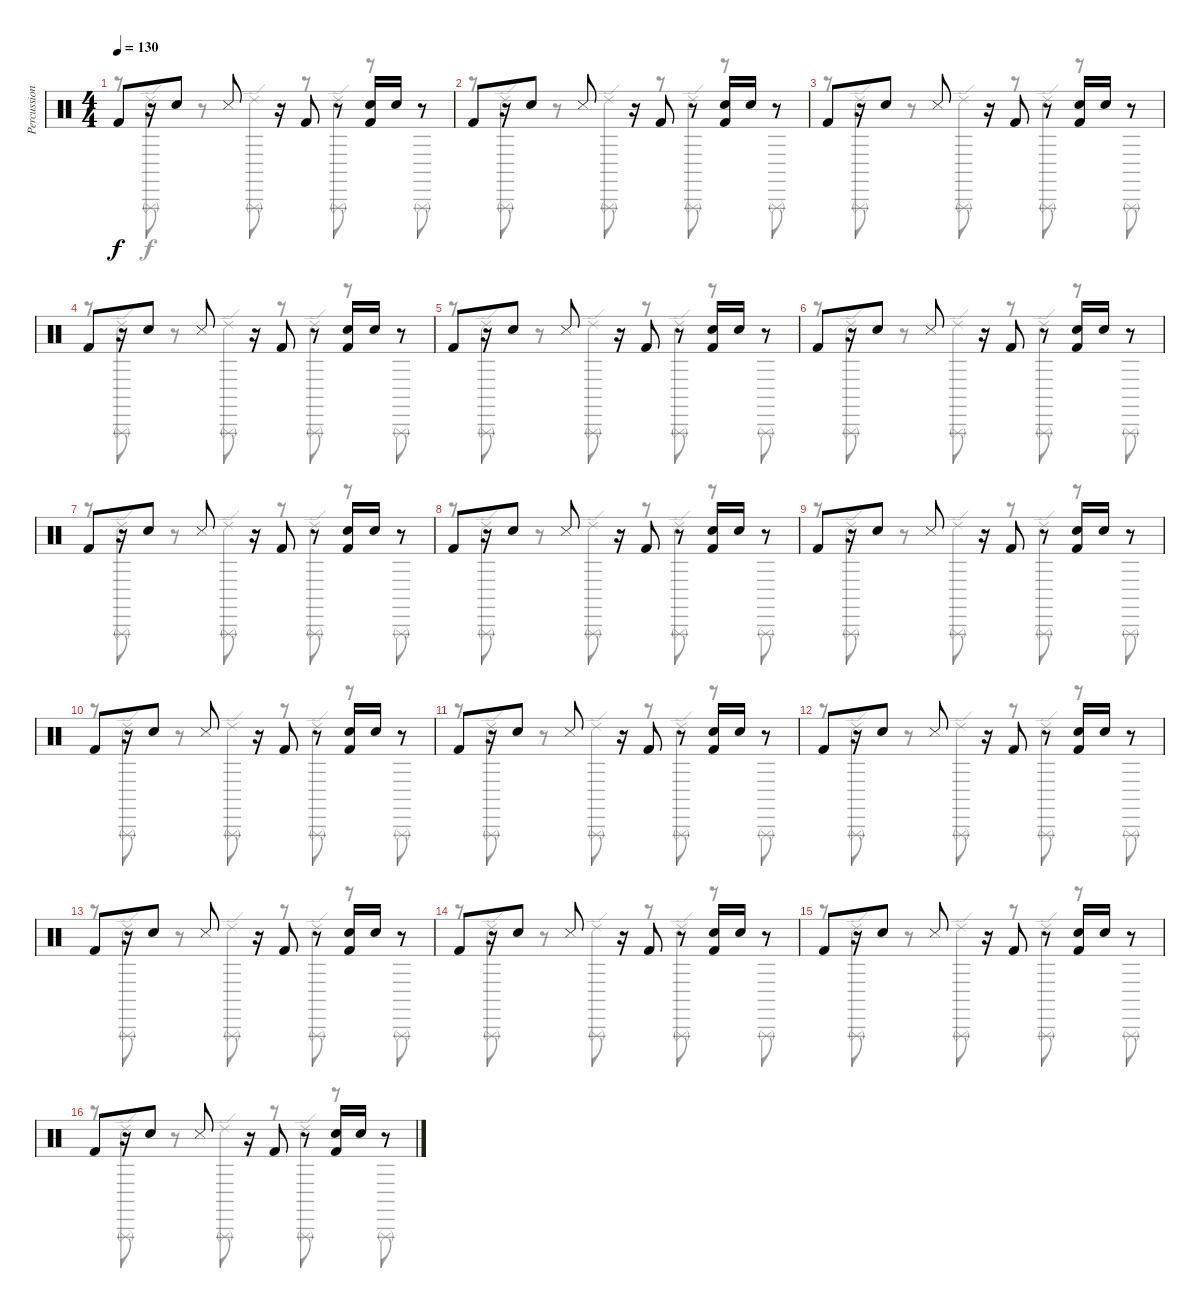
\track ("Percussion" "Percussion") {instrument percussion}
\staff {score}
\articulation defaults
\voice
\ts (4 4)
\tempo 130
\clef neutral
\ks c "Kick (hit) 2".8{dy f}
r.16 "Electric Snare (hit)".8 "Snare (side stick) 3".8 r.16 "Kick (hit) 2".8 r.8 ("Electric Snare (hit)" "Kick (hit) 2").16 "Electric Snare (hit)".16 r.8 |
"Kick (hit) 2".8 r.16 "Electric Snare (hit)".8 "Snare (side stick) 3".8 r.16 "Kick (hit) 2".8 r.8 ("Electric Snare (hit)" "Kick (hit) 2").16 "Electric Snare (hit)".16 r.8 |
"Kick (hit) 2".8 r.16 "Electric Snare (hit)".8 "Snare (side stick) 3".8 r.16 "Kick (hit) 2".8 r.8 ("Electric Snare (hit)" "Kick (hit) 2").16 "Electric Snare (hit)".16 r.8 |
"Kick (hit) 2".8 r.16 "Electric Snare (hit)".8 "Snare (side stick) 3".8 r.16 "Kick (hit) 2".8 r.8 ("Electric Snare (hit)" "Kick (hit) 2").16 "Electric Snare (hit)".16 r.8 |
"Kick (hit) 2".8 r.16 "Electric Snare (hit)".8 "Snare (side stick) 3".8 r.16 "Kick (hit) 2".8 r.8 ("Electric Snare (hit)" "Kick (hit) 2").16 "Electric Snare (hit)".16 r.8 |
"Kick (hit) 2".8 r.16 "Electric Snare (hit)".8 "Snare (side stick) 3".8 r.16 "Kick (hit) 2".8 r.8 ("Electric Snare (hit)" "Kick (hit) 2").16 "Electric Snare (hit)".16 r.8 |
"Kick (hit) 2".8 r.16 "Electric Snare (hit)".8 "Snare (side stick) 3".8 r.16 "Kick (hit) 2".8 r.8 ("Electric Snare (hit)" "Kick (hit) 2").16 "Electric Snare (hit)".16 r.8 |
"Kick (hit) 2".8 r.16 "Electric Snare (hit)".8 "Snare (side stick) 3".8 r.16 "Kick (hit) 2".8 r.8 ("Electric Snare (hit)" "Kick (hit) 2").16 "Electric Snare (hit)".16 r.8 |
"Kick (hit) 2".8 r.16 "Electric Snare (hit)".8 "Snare (side stick) 3".8 r.16 "Kick (hit) 2".8 r.8 ("Electric Snare (hit)" "Kick (hit) 2").16 "Electric Snare (hit)".16 r.8 |
"Kick (hit) 2".8 r.16 "Electric Snare (hit)".8 "Snare (side stick) 3".8 r.16 "Kick (hit) 2".8 r.8 ("Electric Snare (hit)" "Kick (hit) 2").16 "Electric Snare (hit)".16 r.8 |
"Kick (hit) 2".8 r.16 "Electric Snare (hit)".8 "Snare (side stick) 3".8 r.16 "Kick (hit) 2".8 r.8 ("Electric Snare (hit)" "Kick (hit) 2").16 "Electric Snare (hit)".16 r.8 |
"Kick (hit) 2".8 r.16 "Electric Snare (hit)".8 "Snare (side stick) 3".8 r.16 "Kick (hit) 2".8 r.8 ("Electric Snare (hit)" "Kick (hit) 2").16 "Electric Snare (hit)".16 r.8 |
"Kick (hit) 2".8 r.16 "Electric Snare (hit)".8 "Snare (side stick) 3".8 r.16 "Kick (hit) 2".8 r.8 ("Electric Snare (hit)" "Kick (hit) 2").16 "Electric Snare (hit)".16 r.8 |
"Kick (hit) 2".8 r.16 "Electric Snare (hit)".8 "Snare (side stick) 3".8 r.16 "Kick (hit) 2".8 r.8 ("Electric Snare (hit)" "Kick (hit) 2").16 "Electric Snare (hit)".16 r.8 |
"Kick (hit) 2".8 r.16 "Electric Snare (hit)".8 "Snare (side stick) 3".8 r.16 "Kick (hit) 2".8 r.8 ("Electric Snare (hit)" "Kick (hit) 2").16 "Electric Snare (hit)".16 r.8 |
"Kick (hit) 2".8 r.16 "Electric Snare (hit)".8 "Snare (side stick) 3".8 r.16 "Kick (hit) 2".8 r.8 ("Electric Snare (hit)" "Kick (hit) 2").16 "Electric Snare (hit)".16 r.8
\voice
\clef neutral
\ottava regular
\simile none
\ks c
r.8{dy f} ("Triangle (rnute)" "Ride (edge) 2").8 r.8 ("Triangle (rnute)" "Ride (edge) 2").8 r.8 ("Triangle (rnute)" "Ride (edge) 2").8 r.8 "Triangle (rnute)".8 |
r.8 ("Triangle (rnute)" "Ride (edge) 2").8 r.8 ("Triangle (rnute)" "Ride (edge) 2").8 r.8 ("Triangle (rnute)" "Ride (edge) 2").8 r.8 "Triangle (rnute)".8 |
r.8 ("Triangle (rnute)" "Ride (edge) 2").8 r.8 ("Triangle (rnute)" "Ride (edge) 2").8 r.8 ("Triangle (rnute)" "Ride (edge) 2").8 r.8 "Triangle (rnute)".8 |
r.8 ("Triangle (rnute)" "Ride (edge) 2").8 r.8 ("Triangle (rnute)" "Ride (edge) 2").8 r.8 ("Triangle (rnute)" "Ride (edge) 2").8 r.8 "Triangle (rnute)".8 |
r.8 ("Triangle (rnute)" "Ride (edge) 2").8 r.8 ("Triangle (rnute)" "Ride (edge) 2").8 r.8 ("Triangle (rnute)" "Ride (edge) 2").8 r.8 "Triangle (rnute)".8 |
r.8 ("Triangle (rnute)" "Ride (edge) 2").8 r.8 ("Triangle (rnute)" "Ride (edge) 2").8 r.8 ("Triangle (rnute)" "Ride (edge) 2").8 r.8 "Triangle (rnute)".8 |
r.8 ("Triangle (rnute)" "Ride (edge) 2").8 r.8 ("Triangle (rnute)" "Ride (edge) 2").8 r.8 ("Triangle (rnute)" "Ride (edge) 2").8 r.8 "Triangle (rnute)".8 |
r.8 ("Triangle (rnute)" "Ride (edge) 2").8 r.8 ("Triangle (rnute)" "Ride (edge) 2").8 r.8 ("Triangle (rnute)" "Ride (edge) 2").8 r.8 "Triangle (rnute)".8 |
r.8 ("Triangle (rnute)" "Ride (edge) 2").8 r.8 ("Triangle (rnute)" "Ride (edge) 2").8 r.8 ("Triangle (rnute)" "Ride (edge) 2").8 r.8 "Triangle (rnute)".8 |
r.8 ("Triangle (rnute)" "Ride (edge) 2").8 r.8 ("Triangle (rnute)" "Ride (edge) 2").8 r.8 ("Triangle (rnute)" "Ride (edge) 2").8 r.8 "Triangle (rnute)".8 |
r.8 ("Triangle (rnute)" "Ride (edge) 2").8 r.8 ("Triangle (rnute)" "Ride (edge) 2").8 r.8 ("Triangle (rnute)" "Ride (edge) 2").8 r.8 "Triangle (rnute)".8 |
r.8 ("Triangle (rnute)" "Ride (edge) 2").8 r.8 ("Triangle (rnute)" "Ride (edge) 2").8 r.8 ("Triangle (rnute)" "Ride (edge) 2").8 r.8 "Triangle (rnute)".8 |
r.8 ("Triangle (rnute)" "Ride (edge) 2").8 r.8 ("Triangle (rnute)" "Ride (edge) 2").8 r.8 ("Triangle (rnute)" "Ride (edge) 2").8 r.8 "Triangle (rnute)".8 |
r.8 ("Triangle (rnute)" "Ride (edge) 2").8 r.8 ("Triangle (rnute)" "Ride (edge) 2").8 r.8 ("Triangle (rnute)" "Ride (edge) 2").8 r.8 "Triangle (rnute)".8 |
r.8 ("Triangle (rnute)" "Ride (edge) 2").8 r.8 ("Triangle (rnute)" "Ride (edge) 2").8 r.8 ("Triangle (rnute)" "Ride (edge) 2").8 r.8 "Triangle (rnute)".8 |
r.8 ("Triangle (rnute)" "Ride (edge) 2").8 r.8 ("Triangle (rnute)" "Ride (edge) 2").8 r.8 ("Triangle (rnute)" "Ride (edge) 2").8 r.8 "Triangle (rnute)".8
